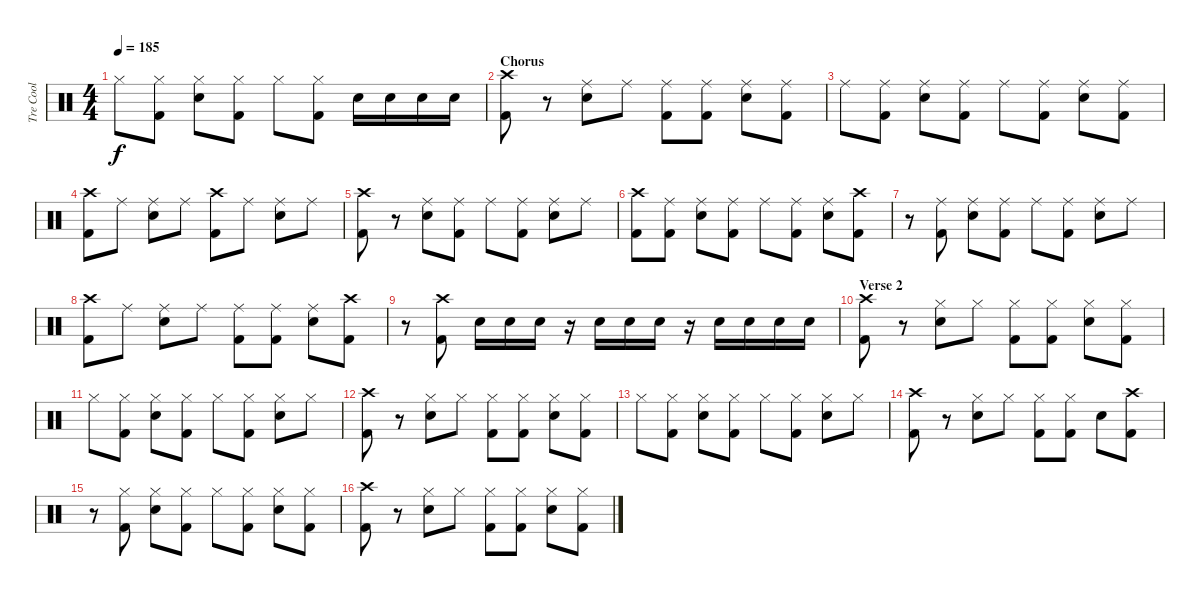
\track ("Tre Cool" "Tre Cool") {instrument percussion}
\staff {score}
\articulation defaults
\ts (4 4)
\tempo 185
\clef neutral
\ks c "Hi-Hat (closed)".8{dy f}
("Hi-Hat (closed)" "Kick (hit) 2").8 ("Hi-Hat (closed)" "Electric Snare (hit)").8 ("Hi-Hat (closed)" "Kick (hit) 2").8 "Hi-Hat (closed)".8 ("Hi-Hat (closed)" "Kick (hit) 2").8 "Electric Snare (hit)".16 "Electric Snare (hit)".16 "Electric Snare (hit)".16 "Electric Snare (hit)".16 |
\section ("" "Chorus")
("Crash high (hit)" "Kick (hit) 2").8 r.8 ("Ride (middle)" "Electric Snare (hit)").8 "Ride (middle)".8 ("Ride (middle)" "Kick (hit) 2").8 ("Ride (middle)" "Kick (hit) 2").8 ("Ride (middle)" "Electric Snare (hit)").8 ("Ride (middle)" "Kick (hit) 2").8 |
"Ride (middle)".8 ("Ride (middle)" "Kick (hit) 2").8 ("Ride (middle)" "Electric Snare (hit)").8 ("Ride (middle)" "Kick (hit) 2").8 "Ride (middle)".8 ("Ride (middle)" "Kick (hit) 2").8 ("Ride (middle)" "Electric Snare (hit)").8 ("Ride (middle)" "Kick (hit) 2").8 |
("Crash high (hit)" "Kick (hit) 2").8 "Ride (middle)".8 ("Ride (middle)" "Electric Snare (hit)").8 "Ride (middle)".8 ("Crash high (hit)" "Kick (hit) 2").8 "Ride (middle)".8 ("Ride (middle)" "Electric Snare (hit)").8 "Ride (middle)".8 |
("Crash high (hit)" "Kick (hit) 2").8 r.8 ("Ride (middle)" "Electric Snare (hit)").8 ("Ride (middle)" "Kick (hit) 2").8 "Ride (middle)".8 ("Ride (middle)" "Kick (hit) 2").8 ("Ride (middle)" "Electric Snare (hit)").8 "Ride (middle)".8 |
("Crash high (hit)" "Kick (hit) 2").8 ("Ride (middle)" "Kick (hit) 2").8 ("Ride (middle)" "Electric Snare (hit)").8 ("Ride (middle)" "Kick (hit) 2").8 "Ride (middle)".8 ("Ride (middle)" "Kick (hit) 2").8 ("Ride (middle)" "Electric Snare (hit)").8 ("Crash high (hit)" "Kick (hit) 2").8 |
r.8 ("Ride (middle)" "Kick (hit) 2").8 ("Ride (middle)" "Electric Snare (hit)").8 ("Ride (middle)" "Kick (hit) 2").8 "Ride (middle)".8 ("Ride (middle)" "Kick (hit) 2").8 ("Ride (middle)" "Electric Snare (hit)").8 "Ride (middle)".8 |
("Crash high (hit)" "Kick (hit) 2").8 "Ride (middle)".8 ("Ride (middle)" "Electric Snare (hit)").8 "Ride (middle)".8 ("Ride (middle)" "Kick (hit) 2").8 ("Ride (middle)" "Kick (hit) 2").8 ("Ride (middle)" "Electric Snare (hit)").8 ("Crash high (hit)" "Kick (hit) 2").8 |
r.8 ("Crash high (hit)" "Kick (hit) 2").8 "Electric Snare (hit)".16 "Electric Snare (hit)".16 "Electric Snare (hit)".16 r.16 "Electric Snare (hit)".16 "Electric Snare (hit)".16 "Electric Snare (hit)".16 r.16 "Electric Snare (hit)".16 "Electric Snare (hit)".16 "Electric Snare (hit)".16 "Electric Snare (hit)".16 |
\section ("" "Verse 2")
("Crash high (hit)" "Kick (hit) 2").8 r.8 ("Hi-Hat (closed)" "Electric Snare (hit)").8 "Hi-Hat (closed)".8 ("Hi-Hat (closed)" "Kick (hit) 2").8 ("Hi-Hat (closed)" "Kick (hit) 2").8 ("Hi-Hat (closed)" "Electric Snare (hit)").8 ("Hi-Hat (closed)" "Kick (hit) 2").8 |
"Hi-Hat (closed)".8 ("Hi-Hat (closed)" "Kick (hit) 2").8 ("Hi-Hat (closed)" "Electric Snare (hit)").8 ("Hi-Hat (closed)" "Kick (hit) 2").8 "Hi-Hat (closed)".8 ("Hi-Hat (closed)" "Kick (hit) 2").8 ("Hi-Hat (closed)" "Electric Snare (hit)").8 "Hi-Hat (closed)".8 |
("Crash high (hit)" "Kick (hit) 2").8 r.8 ("Hi-Hat (closed)" "Electric Snare (hit)").8 "Hi-Hat (closed)".8 ("Hi-Hat (closed)" "Kick (hit) 2").8 ("Hi-Hat (closed)" "Kick (hit) 2").8 ("Hi-Hat (closed)" "Electric Snare (hit)").8 ("Hi-Hat (closed)" "Kick (hit) 2").8 |
"Hi-Hat (closed)".8 ("Hi-Hat (closed)" "Kick (hit) 2").8 ("Hi-Hat (closed)" "Electric Snare (hit)").8 ("Hi-Hat (closed)" "Kick (hit) 2").8 "Hi-Hat (closed)".8 ("Hi-Hat (closed)" "Kick (hit) 2").8 ("Hi-Hat (closed)" "Electric Snare (hit)").8 "Hi-Hat (closed)".8 |
("Crash high (hit)" "Kick (hit) 2").8 r.8 ("Hi-Hat (closed)" "Electric Snare (hit)").8 "Hi-Hat (closed)".8 ("Hi-Hat (closed)" "Kick (hit) 2").8 ("Hi-Hat (closed)" "Kick (hit) 2").8 "Electric Snare (hit)".8 ("Crash high (hit)" "Kick (hit) 2").8 |
r.8 ("Hi-Hat (closed)" "Kick (hit) 2").8 ("Hi-Hat (closed)" "Electric Snare (hit)").8 ("Hi-Hat (closed)" "Kick (hit) 2").8 "Hi-Hat (closed)".8 ("Hi-Hat (closed)" "Kick (hit) 2").8 ("Hi-Hat (closed)" "Electric Snare (hit)").8 ("Hi-Hat (closed)" "Kick (hit) 2").8 |
("Crash high (hit)" "Kick (hit) 2").8 r.8 ("Hi-Hat (closed)" "Electric Snare (hit)").8 "Hi-Hat (closed)".8 ("Hi-Hat (closed)" "Kick (hit) 2").8 ("Hi-Hat (closed)" "Kick (hit) 2").8 ("Hi-Hat (closed)" "Electric Snare (hit)").8 ("Hi-Hat (closed)" "Kick (hit) 2").8
